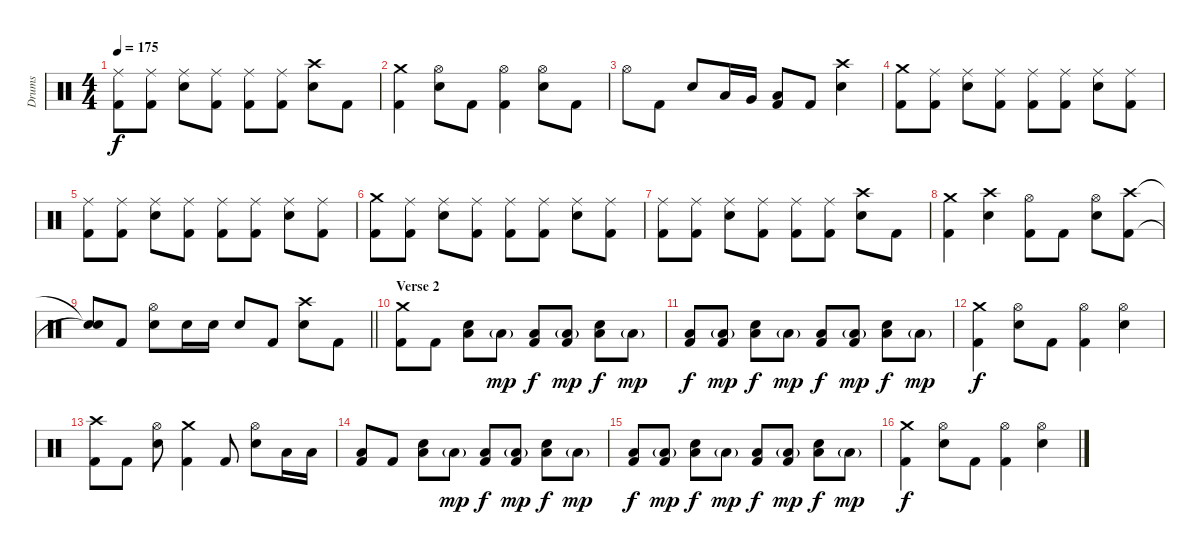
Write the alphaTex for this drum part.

\track ("Drums" "Drums") {instrument percussion}
\staff {score}
\articulation defaults
\ts (4 4)
\tempo 175
\clef neutral
\ks c
("Ride (middle)" "Kick (hit) 2").8{dy f} ("Ride (middle)" "Kick (hit) 2").8 ("Ride (middle)" "Electric Snare (hit)").8 ("Ride (middle)" "Kick (hit) 2").8 ("Ride (middle)" "Kick (hit) 2").8 ("Ride (middle)" "Kick (hit) 2").8 ("Crash high (hit)" "Electric Snare (hit)").8 "Kick (hit) 2".8 |
("Crash medium (hit)" "Kick (hit) 2").4 ("Hi-Hat (open)" "Electric Snare (hit)").8 "Kick (hit) 2".8 ("Hi-Hat (open)" "Kick (hit) 2").4 ("Hi-Hat (open)" "Electric Snare (hit)").8 "Kick (hit) 2".8 |
"Hi-Hat (open)".8 "Kick (hit) 2".8 "Electric Snare (hit)".8 "Low Tom (hit)".16 "Very Low Tom (hit)".16 ("Low Floor Tom (hit)" "Kick (hit) 2").8 "Kick (hit) 2".8 ("Crash high (hit)" "Electric Snare (hit)").4 |
("Crash medium (hit)" "Kick (hit) 2").8 ("Ride (middle)" "Kick (hit) 2").8 ("Ride (middle)" "Electric Snare (hit)").8 ("Ride (middle)" "Kick (hit) 2").8 ("Ride (middle)" "Kick (hit) 2").8 ("Ride (middle)" "Kick (hit) 2").8 ("Ride (middle)" "Electric Snare (hit)").8 ("Ride (middle)" "Kick (hit) 2").8 |
("Ride (middle)" "Kick (hit) 2").8 ("Ride (middle)" "Kick (hit) 2").8 ("Ride (middle)" "Electric Snare (hit)").8 ("Ride (middle)" "Kick (hit) 2").8 ("Ride (middle)" "Kick (hit) 2").8 ("Ride (middle)" "Kick (hit) 2").8 ("Ride (middle)" "Electric Snare (hit)").8 ("Ride (middle)" "Kick (hit) 2").8 |
("Crash medium (hit)" "Kick (hit) 2").8 ("Ride (middle)" "Kick (hit) 2").8 ("Ride (middle)" "Electric Snare (hit)").8 ("Ride (middle)" "Kick (hit) 2").8 ("Ride (middle)" "Kick (hit) 2").8 ("Ride (middle)" "Kick (hit) 2").8 ("Ride (middle)" "Electric Snare (hit)").8 ("Ride (middle)" "Kick (hit) 2").8 |
("Ride (middle)" "Kick (hit) 2").8 ("Ride (middle)" "Kick (hit) 2").8 ("Ride (middle)" "Electric Snare (hit)").8 ("Ride (middle)" "Kick (hit) 2").8 ("Ride (middle)" "Kick (hit) 2").8 ("Ride (middle)" "Kick (hit) 2").8 ("Crash high (hit)" "Electric Snare (hit)").8 "Kick (hit) 2".8 |
("Crash medium (hit)" "Kick (hit) 2").4 ("Crash high (hit)" "Electric Snare (hit)").4 ("Hi-Hat (open)" "Kick (hit) 2").8 "Kick (hit) 2".8 ("Hi-Hat (open)" "Electric Snare (hit)").8 ("Crash high (hit)" "Kick (hit) 2").8 |
\barLineRight lightlight
("Snare (hit)"{t} "Snare (hit)"{t}).8 "Kick (hit) 2".8 ("Hi-Hat (open)" "Electric Snare (hit)").8 "Electric Snare (hit)".16 "Electric Snare (hit)".16 "Electric Snare (hit)".8 "Kick (hit) 2".8 ("Crash high (hit)" "Electric Snare (hit)").8 "Kick (hit) 2".8 |
\section ("" "Verse 2")
("Crash medium (hit)" "Kick (hit) 2").8 "Kick (hit) 2".8 ("Low Floor Tom (hit)" "Electric Snare (hit)").8 "Low Floor Tom (hit)"{g}.8{dy mp} ("Low Floor Tom (hit)" "Kick (hit) 2").8{dy f} ("Low Floor Tom (hit)"{g} "Kick (hit) 2").8{dy mp} ("Low Floor Tom (hit)" "Electric Snare (hit)").8{dy f} "Low Floor Tom (hit)"{g}.8{dy mp} |
("Low Floor Tom (hit)" "Kick (hit) 2").8{dy f} ("Low Floor Tom (hit)"{g} "Kick (hit) 2").8{dy mp} ("Low Floor Tom (hit)" "Electric Snare (hit)").8{dy f} "Low Floor Tom (hit)"{g}.8{dy mp} ("Low Floor Tom (hit)" "Kick (hit) 2").8{dy f} ("Low Floor Tom (hit)"{g} "Kick (hit) 2").8{dy mp} ("Low Floor Tom (hit)" "Electric Snare (hit)").8{dy f} "Low Floor Tom (hit)"{g}.8{dy mp} |
("Crash medium (hit)" "Kick (hit) 2").4{dy f} ("Hi-Hat (open)" "Electric Snare (hit)").8 "Kick (hit) 2".8 ("Hi-Hat (open)" "Kick (hit) 2").4 ("Hi-Hat (open)" "Electric Snare (hit)").4 |
("Crash high (hit)" "Kick (hit) 2").8 "Kick (hit) 2".8 ("Hi-Hat (open)" "Electric Snare (hit)").8 ("Crash medium (hit)" "Kick (hit) 2").4 "Kick (hit) 2".8 ("Hi-Hat (open)" "Electric Snare (hit)").8 "Low Tom (hit)".16 "Low Tom (hit)".16 |
("Low Floor Tom (hit)" "Kick (hit) 2").8 "Kick (hit) 2".8 ("Low Floor Tom (hit)" "Electric Snare (hit)").8 "Low Floor Tom (hit)"{g}.8{dy mp} ("Low Floor Tom (hit)" "Kick (hit) 2").8{dy f} ("Low Floor Tom (hit)"{g} "Kick (hit) 2").8{dy mp} ("Low Floor Tom (hit)" "Electric Snare (hit)").8{dy f} "Low Floor Tom (hit)"{g}.8{dy mp} |
("Low Floor Tom (hit)" "Kick (hit) 2").8{dy f} ("Low Floor Tom (hit)"{g} "Kick (hit) 2").8{dy mp} ("Low Floor Tom (hit)" "Electric Snare (hit)").8{dy f} "Low Floor Tom (hit)"{g}.8{dy mp} ("Low Floor Tom (hit)" "Kick (hit) 2").8{dy f} ("Low Floor Tom (hit)"{g} "Kick (hit) 2").8{dy mp} ("Low Floor Tom (hit)" "Electric Snare (hit)").8{dy f} "Low Floor Tom (hit)"{g}.8{dy mp} |
("Crash medium (hit)" "Kick (hit) 2").4{dy f} ("Hi-Hat (open)" "Electric Snare (hit)").8 "Kick (hit) 2".8 ("Hi-Hat (open)" "Kick (hit) 2").4 ("Hi-Hat (open)" "Electric Snare (hit)").4
